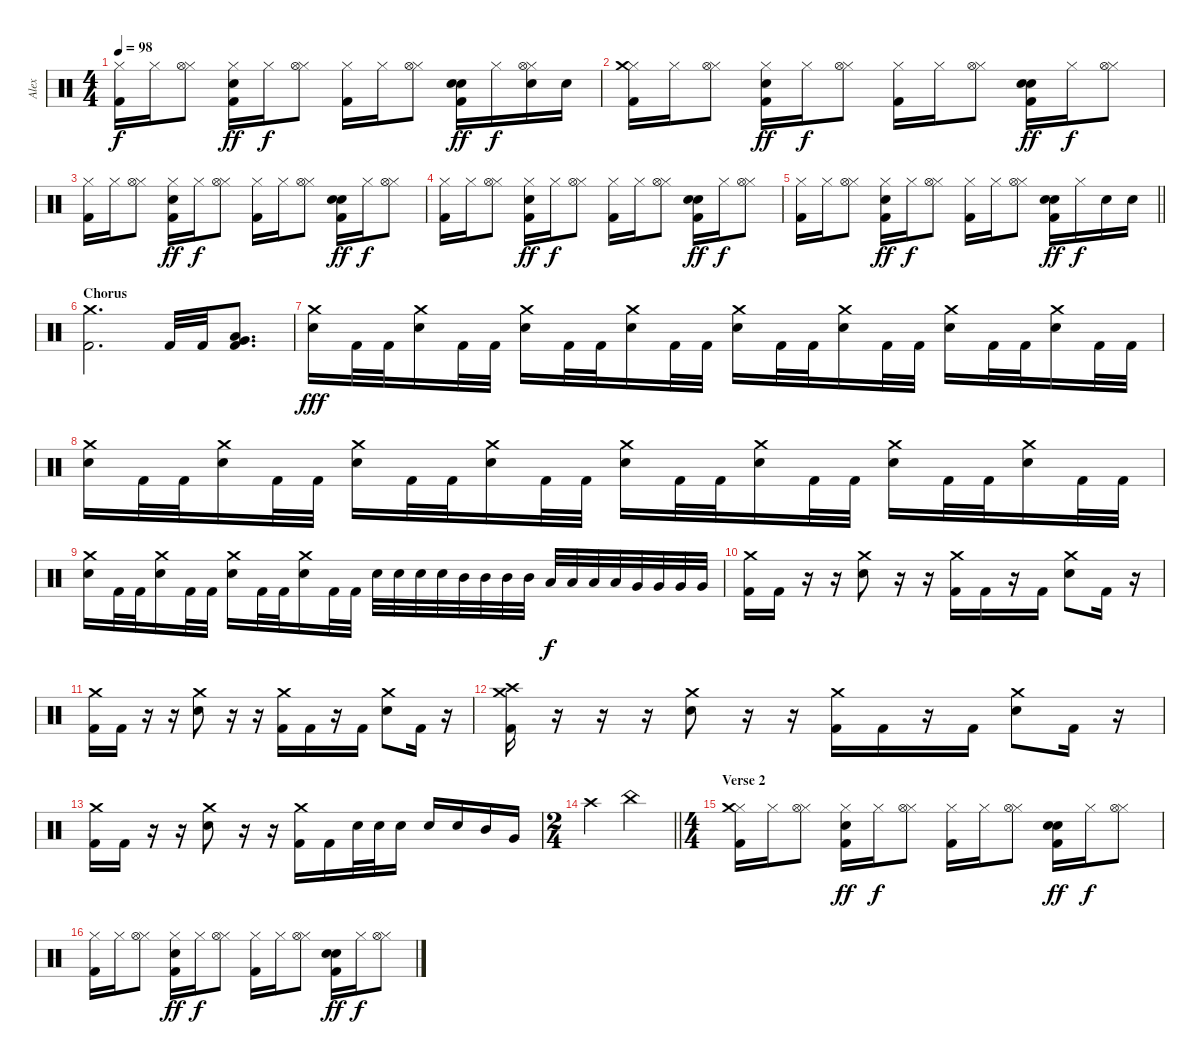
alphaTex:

\track ("Alex" "Alex") {instrument percussion}
\staff {score}
\articulation defaults
\ts (4 4)
\tempo 98
\clef neutral
\ks c
("Hi-Hat (closed)" "Kick (hit) 2").16{dy f} "Hi-Hat (closed)".16 ("Hi-Hat (closed)" "Hi-Hat (open)").8 ("Hi-Hat (closed)" "Snare (hit) 2" "Kick (hit) 2").16{dy ff} "Hi-Hat (closed)".16{dy f} ("Hi-Hat (closed)" "Hi-Hat (open)").8 ("Hi-Hat (closed)" "Kick (hit) 2").16 "Hi-Hat (closed)".16 ("Hi-Hat (closed)" "Hi-Hat (open)").8 ("Snare (hit)" "Snare (hit) 2" "Kick (hit) 2").16{dy ff} "Hi-Hat (closed)".16{dy f} ("Hi-Hat (closed)" "Hi-Hat (open)" "Snare (hit) 2").16 "Snare (hit) 2".16 |
("Hi-Hat (closed)" "Crash medium (hit)" "Kick (hit) 2").16 "Hi-Hat (closed)".16 ("Hi-Hat (closed)" "Hi-Hat (open)").8 ("Hi-Hat (closed)" "Snare (hit) 2" "Kick (hit) 2").16{dy ff} "Hi-Hat (closed)".16{dy f} ("Hi-Hat (closed)" "Hi-Hat (open)").8 ("Hi-Hat (closed)" "Kick (hit) 2").16 "Hi-Hat (closed)".16 ("Hi-Hat (closed)" "Hi-Hat (open)").8 ("Snare (hit)" "Snare (hit) 2" "Kick (hit) 2").16{dy ff} "Hi-Hat (closed)".16{dy f} ("Hi-Hat (closed)" "Hi-Hat (open)").8 |
("Hi-Hat (closed)" "Kick (hit) 2").16 "Hi-Hat (closed)".16 ("Hi-Hat (closed)" "Hi-Hat (open)").8 ("Hi-Hat (closed)" "Snare (hit) 2" "Kick (hit) 2").16{dy ff} "Hi-Hat (closed)".16{dy f} ("Hi-Hat (closed)" "Hi-Hat (open)").8 ("Hi-Hat (closed)" "Kick (hit) 2").16 "Hi-Hat (closed)".16 ("Hi-Hat (closed)" "Hi-Hat (open)").8 ("Snare (hit)" "Snare (hit) 2" "Kick (hit) 2").16{dy ff} "Hi-Hat (closed)".16{dy f} ("Hi-Hat (closed)" "Hi-Hat (open)").8 |
("Hi-Hat (closed)" "Kick (hit) 2").16 "Hi-Hat (closed)".16 ("Hi-Hat (closed)" "Hi-Hat (open)").8 ("Hi-Hat (closed)" "Snare (hit) 2" "Kick (hit) 2").16{dy ff} "Hi-Hat (closed)".16{dy f} ("Hi-Hat (closed)" "Hi-Hat (open)").8 ("Hi-Hat (closed)" "Kick (hit) 2").16 "Hi-Hat (closed)".16 ("Hi-Hat (closed)" "Hi-Hat (open)").8 ("Snare (hit)" "Snare (hit) 2" "Kick (hit) 2").16{dy ff} "Hi-Hat (closed)".16{dy f} ("Hi-Hat (closed)" "Hi-Hat (open)").8 |
\barLineRight lightlight
("Hi-Hat (closed)" "Kick (hit) 2").16 "Hi-Hat (closed)".16 ("Hi-Hat (closed)" "Hi-Hat (open)").8 ("Hi-Hat (closed)" "Snare (hit) 2" "Kick (hit) 2").16{dy ff} "Hi-Hat (closed)".16{dy f} ("Hi-Hat (closed)" "Hi-Hat (open)").8 ("Hi-Hat (closed)" "Kick (hit) 2").16 "Hi-Hat (closed)".16 ("Hi-Hat (closed)" "Hi-Hat (open)").8 ("Snare (hit)" "Snare (hit) 2" "Kick (hit) 2").16{dy ff} "Hi-Hat (closed)".16{dy f} "Snare (hit) 2".16 "Snare (hit) 2".16 |
\section ("" "Chorus")
("Crash medium (hit)" "Kick (hit) 2").2{d} "Kick (hit) 2".32 "Kick (hit) 2".32 ("Very Low Tom (hit)" "Low Floor Tom (hit)" "Kick (hit) 2").8{d} |
("Crash medium (hit)" "Snare (hit) 2").16{dy fff} "Kick (hit) 2".32 "Kick (hit) 2".32 ("Crash medium (hit)" "Snare (hit) 2").16 "Kick (hit) 2".32 "Kick (hit) 2".32 ("Crash medium (hit)" "Snare (hit) 2").16 "Kick (hit) 2".32 "Kick (hit) 2".32 ("Crash medium (hit)" "Snare (hit) 2").16 "Kick (hit) 2".32 "Kick (hit) 2".32 ("Crash medium (hit)" "Snare (hit) 2").16 "Kick (hit) 2".32 "Kick (hit) 2".32 ("Crash medium (hit)" "Snare (hit) 2").16 "Kick (hit) 2".32 "Kick (hit) 2".32 ("Crash medium (hit)" "Snare (hit) 2").16 "Kick (hit) 2".32 "Kick (hit) 2".32 ("Crash medium (hit)" "Snare (hit) 2").16 "Kick (hit) 2".32 "Kick (hit) 2".32 |
("Crash medium (hit)" "Snare (hit) 2").16 "Kick (hit) 2".32 "Kick (hit) 2".32 ("Crash medium (hit)" "Snare (hit) 2").16 "Kick (hit) 2".32 "Kick (hit) 2".32 ("Crash medium (hit)" "Snare (hit) 2").16 "Kick (hit) 2".32 "Kick (hit) 2".32 ("Crash medium (hit)" "Snare (hit) 2").16 "Kick (hit) 2".32 "Kick (hit) 2".32 ("Crash medium (hit)" "Snare (hit) 2").16 "Kick (hit) 2".32 "Kick (hit) 2".32 ("Crash medium (hit)" "Snare (hit) 2").16 "Kick (hit) 2".32 "Kick (hit) 2".32 ("Crash medium (hit)" "Snare (hit) 2").16 "Kick (hit) 2".32 "Kick (hit) 2".32 ("Crash medium (hit)" "Snare (hit) 2").16 "Kick (hit) 2".32 "Kick (hit) 2".32 |
("Crash medium (hit)" "Snare (hit) 2").16 "Kick (hit) 2".32 "Kick (hit) 2".32 ("Crash medium (hit)" "Snare (hit) 2").16 "Kick (hit) 2".32 "Kick (hit) 2".32 ("Crash medium (hit)" "Snare (hit) 2").16 "Kick (hit) 2".32 "Kick (hit) 2".32 ("Crash medium (hit)" "Snare (hit) 2").16 "Kick (hit) 2".32 "Kick (hit) 2".32 "Snare (hit) 2".32 "Snare (hit) 2".32 "Snare (hit) 2".32 "Snare (hit) 2".32 "Mid Tom (hit)".32 "Mid Tom (hit)".32 "Mid Tom (hit)".32 "Mid Tom (hit)".32 "Low Tom (hit)".32{dy f} "Low Tom (hit)".32 "Low Tom (hit)".32 "Low Tom (hit)".32 "Very Low Tom (hit)".32 "Very Low Tom (hit)".32 "Very Low Tom (hit)".32 "Very Low Tom (hit)".32 |
("Crash medium (hit)" "Kick (hit) 2").16 "Kick (hit) 2".16 r.16 r.16 ("Crash medium (hit)" "Snare (hit) 2").8 r.16 r.16 ("Crash medium (hit)" "Kick (hit) 2").16 "Kick (hit) 2".16 r.16 "Kick (hit) 2".16 ("Crash medium (hit)" "Snare (hit) 2").8 "Kick (hit) 2".16 r.16 |
("Crash medium (hit)" "Kick (hit) 2").16 "Kick (hit) 2".16 r.16 r.16 ("Crash medium (hit)" "Snare (hit) 2").8 r.16 r.16 ("Crash medium (hit)" "Kick (hit) 2").16 "Kick (hit) 2".16 r.16 "Kick (hit) 2".16 ("Crash medium (hit)" "Snare (hit) 2").8 "Kick (hit) 2".16 r.16 |
("Crash medium (hit)" "Crash high (hit)" "Kick (hit) 2").16 r.16 r.16 r.16 ("Crash medium (hit)" "Snare (hit) 2").8 r.16 r.16 ("Crash medium (hit)" "Kick (hit) 2").16 "Kick (hit) 2".16 r.16 "Kick (hit) 2".16 ("Crash medium (hit)" "Snare (hit) 2").8 "Kick (hit) 2".16 r.16 |
("Crash medium (hit)" "Kick (hit) 2").16 "Kick (hit) 2".16 r.16 r.16 ("Crash medium (hit)" "Snare (hit) 2").8 r.16 r.16 ("Crash medium (hit)" "Kick (hit) 2").16 "Kick (hit) 2".16 "Snare (hit) 2".32 "Snare (hit) 2".32 "Snare (hit) 2".16 "Snare (hit) 2".16 "Snare (hit) 2".16 "Mid Tom (hit)".16 "Very Low Tom (hit)".16 |
\ts (2 4)
\barLineRight lightlight "Crash high (hit)".4 "China (hit)".4
|
\ts (4 4)
\section ("" "Verse 2")
("Hi-Hat (closed)" "Crash medium (hit)" "Kick (hit) 2").16 "Hi-Hat (closed)".16 ("Hi-Hat (closed)" "Hi-Hat (open)").8 ("Hi-Hat (closed)" "Snare (hit) 2" "Kick (hit) 2").16{dy ff} "Hi-Hat (closed)".16{dy f} ("Hi-Hat (closed)" "Hi-Hat (open)").8 ("Hi-Hat (closed)" "Kick (hit) 2").16 "Hi-Hat (closed)".16 ("Hi-Hat (closed)" "Hi-Hat (open)").8 ("Snare (hit)" "Snare (hit) 2" "Kick (hit) 2").16{dy ff} "Hi-Hat (closed)".16{dy f} ("Hi-Hat (closed)" "Hi-Hat (open)").8 |
("Hi-Hat (closed)" "Kick (hit) 2").16 "Hi-Hat (closed)".16 ("Hi-Hat (closed)" "Hi-Hat (open)").8 ("Hi-Hat (closed)" "Snare (hit) 2" "Kick (hit) 2").16{dy ff} "Hi-Hat (closed)".16{dy f} ("Hi-Hat (closed)" "Hi-Hat (open)").8 ("Hi-Hat (closed)" "Kick (hit) 2").16 "Hi-Hat (closed)".16 ("Hi-Hat (closed)" "Hi-Hat (open)").8 ("Snare (hit)" "Snare (hit) 2" "Kick (hit) 2").16{dy ff} "Hi-Hat (closed)".16{dy f} ("Hi-Hat (closed)" "Hi-Hat (open)").8
